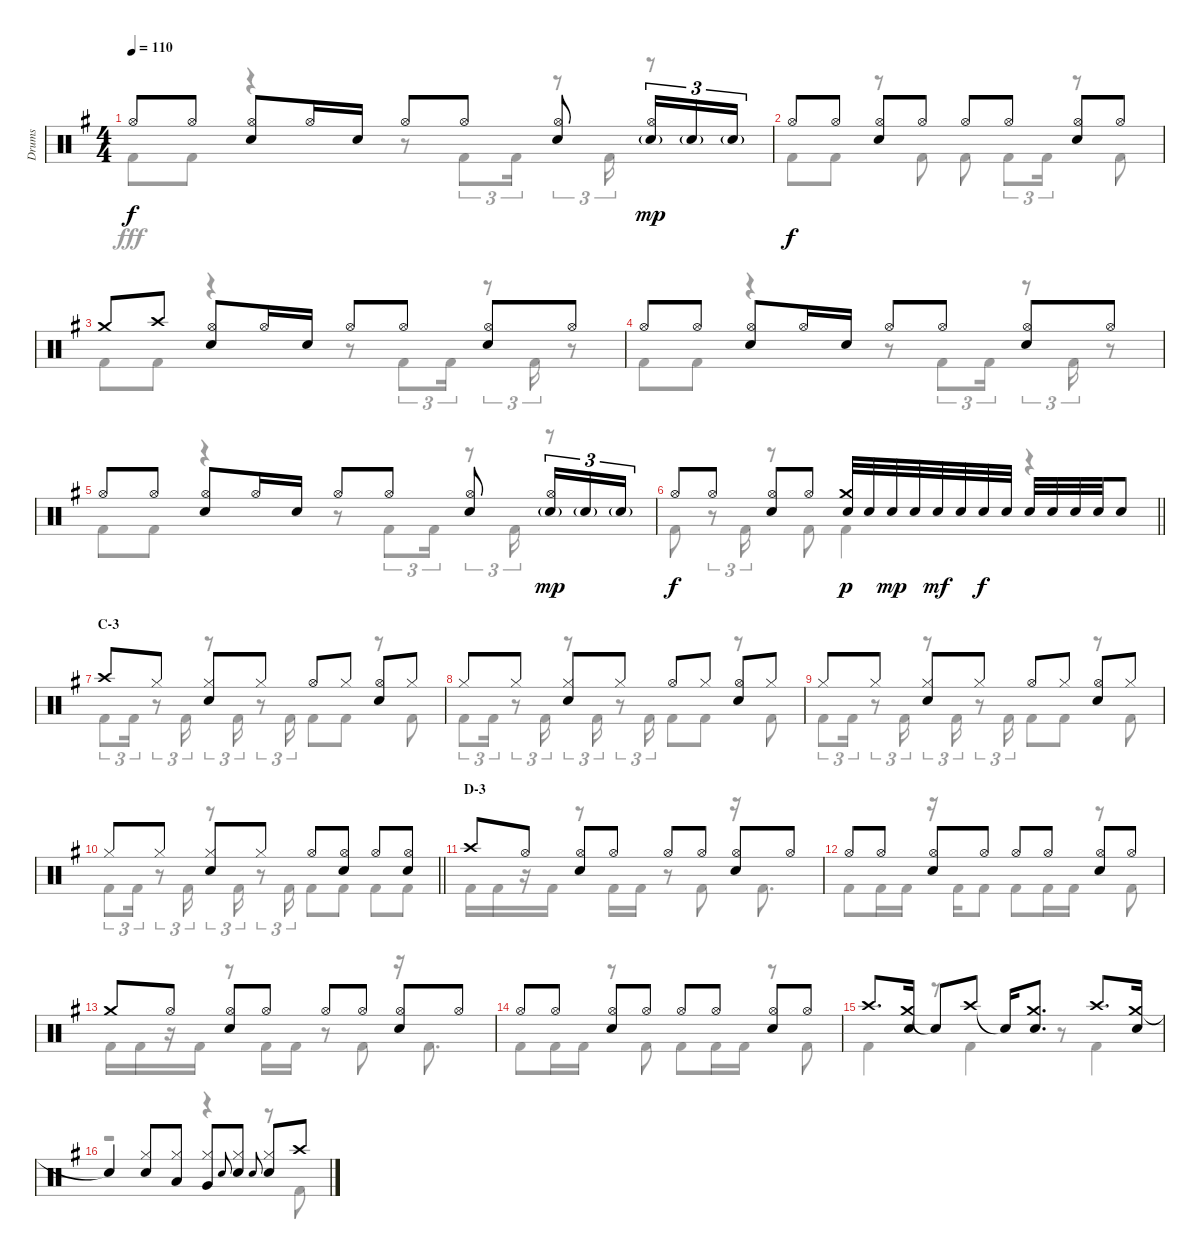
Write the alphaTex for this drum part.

\track ("Drums" "Drums") {instrument percussion}
\staff {score}
\articulation defaults
\voice
\ts (4 4)
\tempo 110
\clef neutral
\ks g "Hi-Hat (open)".8{dy f} "Hi-Hat (open)".8
("Hi-Hat (open)" "Snare (hit) 2").8 "Hi-Hat (open)".16 "Snare (hit) 2".16 "Hi-Hat (open)".8 "Hi-Hat (open)".8 ("Hi-Hat (open)" "Snare (hit) 2").8 ("Hi-Hat (open)" "Snare (hit) 2"{g}).16{tu (3 2) dy mp} "Snare (hit) 2"{g}.16{tu (3 2)} "Snare (hit) 2"{g}.16{tu (3 2)} |
"Hi-Hat (open)".8{dy f} "Hi-Hat (open)".8 ("Hi-Hat (open)" "Snare (hit) 2").8 "Hi-Hat (open)".8 "Hi-Hat (open)".8 "Hi-Hat (open)".8 ("Hi-Hat (open)" "Snare (hit) 2").8 "Hi-Hat (open)".8 |
"Crash medium (hit)".8 "Crash high (hit)".8 ("Hi-Hat (open)" "Snare (hit) 2").8 "Hi-Hat (open)".16 "Snare (hit) 2".16 "Hi-Hat (open)".8 "Hi-Hat (open)".8 ("Hi-Hat (open)" "Snare (hit) 2").8 "Hi-Hat (open)".8 |
"Hi-Hat (open)".8 "Hi-Hat (open)".8 ("Hi-Hat (open)" "Snare (hit) 2").8 "Hi-Hat (open)".16 "Snare (hit) 2".16 "Hi-Hat (open)".8 "Hi-Hat (open)".8 ("Hi-Hat (open)" "Snare (hit) 2").8 "Hi-Hat (open)".8 |
"Hi-Hat (open)".8 "Hi-Hat (open)".8 ("Hi-Hat (open)" "Snare (hit) 2").8 "Hi-Hat (open)".16 "Snare (hit) 2".16 "Hi-Hat (open)".8 "Hi-Hat (open)".8 ("Hi-Hat (open)" "Snare (hit) 2").8 ("Hi-Hat (open)" "Snare (hit) 2"{g}).16{tu (3 2) dy mp} "Snare (hit) 2"{g}.16{tu (3 2)} "Snare (hit) 2"{g}.16{tu (3 2)} |
\barLineRight lightlight "Hi-Hat (open)".8{dy f} "Hi-Hat (open)".8
("Hi-Hat (open)" "Snare (hit) 2").8 "Hi-Hat (open)".8 ("Crash medium (hit)" "Snare (hit) 2").32{dy p} "Snare (hit) 2".32 "Snare (hit) 2".32{dy mp} "Snare (hit) 2".32 "Snare (hit) 2".32{dy mf} "Snare (hit) 2".32 "Snare (hit) 2".32{dy f} "Snare (hit) 2".32 "Snare (hit) 2".32 "Snare (hit) 2".32 "Snare (hit) 2".32 "Snare (hit) 2".32 "Snare (hit) 2".8 |
\section ("" "C-3")
"Crash high (hit)".8 "Hi-Hat (closed)".8 ("Hi-Hat (closed)" "Snare (hit) 2").8 "Hi-Hat (closed)".8 "Hi-Hat (open)".8 "Hi-Hat (closed)".8 ("Hi-Hat (open)" "Snare (hit) 2").8 "Hi-Hat (closed)".8 |
"Hi-Hat (closed)".8 "Hi-Hat (closed)".8 ("Hi-Hat (closed)" "Snare (hit) 2").8 "Hi-Hat (closed)".8 "Hi-Hat (open)".8 "Hi-Hat (closed)".8 ("Hi-Hat (open)" "Snare (hit) 2").8 "Hi-Hat (closed)".8 |
"Hi-Hat (closed)".8 "Hi-Hat (closed)".8 ("Hi-Hat (closed)" "Snare (hit) 2").8 "Hi-Hat (closed)".8 "Hi-Hat (open)".8 "Hi-Hat (closed)".8 ("Hi-Hat (open)" "Snare (hit) 2").8 "Hi-Hat (closed)".8 |
\barLineRight lightlight "Hi-Hat (closed)".8 "Hi-Hat (closed)".8
("Hi-Hat (closed)" "Snare (hit) 2").8 "Hi-Hat (closed)".8 "Hi-Hat (open)".8 ("Hi-Hat (open)" "Snare (hit) 2").8 "Hi-Hat (open)".8 ("Hi-Hat (open)" "Snare (hit) 2").8 |
\section ("" "D-3")
"Crash high (hit)".8 "Hi-Hat (open)".8 ("Hi-Hat (open)" "Snare (hit) 2").8 "Hi-Hat (open)".8 "Hi-Hat (open)".8 "Hi-Hat (open)".8 ("Hi-Hat (open)" "Snare (hit) 2").8 "Hi-Hat (open)".8 |
"Hi-Hat (open)".8 "Hi-Hat (open)".8 ("Hi-Hat (open)" "Snare (hit) 2").8 "Hi-Hat (open)".8 "Hi-Hat (open)".8 "Hi-Hat (open)".8 ("Hi-Hat (open)" "Snare (hit) 2").8 "Hi-Hat (open)".8 |
"Crash medium (hit)".8 "Hi-Hat (open)".8 ("Hi-Hat (open)" "Snare (hit) 2").8 "Hi-Hat (open)".8 "Hi-Hat (open)".8 "Hi-Hat (open)".8 ("Hi-Hat (open)" "Snare (hit) 2").8 "Hi-Hat (open)".8 |
"Hi-Hat (open)".8 "Hi-Hat (open)".8 ("Hi-Hat (open)" "Snare (hit) 2").8 "Hi-Hat (open)".8 "Hi-Hat (open)".8 "Hi-Hat (open)".8 ("Hi-Hat (open)" "Snare (hit) 2").8 "Hi-Hat (open)".8 |
"Crash high (hit)".8{d} ("Crash medium (hit)" "Snare (hit) 2").16 "Snare (hit)"{t}.8 "Crash high (hit)".8 "Snare (hit)"{t}.16 ("Crash medium (hit)" "Snare (hit) 2").8{d} "Crash high (hit)".8{d} ("Crash medium (hit)" "Snare (hit) 2").16 |
"Snare (hit)"{t}.4 ("Hi-Hat (closed)" "Snare (hit) 2").8 ("Hi-Hat (closed)" "Low Tom (hit)").8 ("Hi-Hat (closed)" "Very Low Tom (hit)").8 "Snare (hit) 2".8{gr onbeat} ("Hi-Hat (closed)" "Snare (hit) 2").8 "Snare (hit) 2".8{gr onbeat} ("Hi-Hat (closed)" "Snare (hit) 2").8 "Crash high (hit)".8
\voice
\clef neutral
\ottava regular
\simile none
\ks g "Kick (hit) 2".8{dy fff} "Kick (hit) 2".8
r.4 r.8 "Kick (hit) 2".8{tu (3 2)} "Kick (hit) 2".16{tu (3 2)} r.8{tu (3 2)} "Kick (hit) 2".16{tu (3 2)} r.8 |
"Kick (hit) 2".8 "Kick (hit) 2".8 r.8 "Kick (hit) 2".8 "Kick (hit) 2".8 "Kick (hit) 2".8{tu (3 2)} "Kick (hit) 2".16{tu (3 2)} r.8 "Kick (hit) 2".8 |
"Kick (hit) 2".8 "Kick (hit) 2".8 r.4 r.8 "Kick (hit) 2".8{tu (3 2)} "Kick (hit) 2".16{tu (3 2)} r.8{tu (3 2)} "Kick (hit) 2".16{tu (3 2)} r.8 |
"Kick (hit) 2".8 "Kick (hit) 2".8 r.4 r.8 "Kick (hit) 2".8{tu (3 2)} "Kick (hit) 2".16{tu (3 2)} r.8{tu (3 2)} "Kick (hit) 2".16{tu (3 2)} r.8 |
"Kick (hit) 2".8 "Kick (hit) 2".8 r.4 r.8 "Kick (hit) 2".8{tu (3 2)} "Kick (hit) 2".16{tu (3 2)} r.8{tu (3 2)} "Kick (hit) 2".16{tu (3 2)} r.8 |
\barLineRight lightlight "Kick (hit) 2".8
r.8{tu (3 2)} "Kick (hit) 2".16{tu (3 2)} r.8 "Kick (hit) 2".8 "Kick (hit) 2".4 r.4 |
"Kick (hit) 2".8{tu (3 2)} "Kick (hit) 2".16{tu (3 2)} r.8{tu (3 2)} "Kick (hit) 2".16{tu (3 2)} r.8{tu (3 2)} "Kick (hit) 2".16{tu (3 2)} r.8{tu (3 2)} "Kick (hit) 2".16{tu (3 2)} "Kick (hit) 2".8 "Kick (hit) 2".8 r.8 "Kick (hit) 2".8 |
"Kick (hit) 2".8{tu (3 2)} "Kick (hit) 2".16{tu (3 2)} r.8{tu (3 2)} "Kick (hit) 2".16{tu (3 2)} r.8{tu (3 2)} "Kick (hit) 2".16{tu (3 2)} r.8{tu (3 2)} "Kick (hit) 2".16{tu (3 2)} "Kick (hit) 2".8 "Kick (hit) 2".8 r.8 "Kick (hit) 2".8 |
"Kick (hit) 2".8{tu (3 2)} "Kick (hit) 2".16{tu (3 2)} r.8{tu (3 2)} "Kick (hit) 2".16{tu (3 2)} r.8{tu (3 2)} "Kick (hit) 2".16{tu (3 2)} r.8{tu (3 2)} "Kick (hit) 2".16{tu (3 2)} "Kick (hit) 2".8 "Kick (hit) 2".8 r.8 "Kick (hit) 2".8 |
\barLineRight lightlight "Kick (hit) 2".8{tu (3 2)} "Kick (hit) 2".16{tu (3 2)}
r.8{tu (3 2)} "Kick (hit) 2".16{tu (3 2)} r.8{tu (3 2)} "Kick (hit) 2".16{tu (3 2)} r.8{tu (3 2)} "Kick (hit) 2".16{tu (3 2)} "Kick (hit) 2".8 "Kick (hit) 2".8 "Kick (hit) 2".8 "Kick (hit) 2".8 |
"Kick (hit) 2".16 "Kick (hit) 2".16 r.16 "Kick (hit) 2".16 r.8 "Kick (hit) 2".16 "Kick (hit) 2".16 r.8 "Kick (hit) 2".8 r.16 "Kick (hit) 2".8{d} |
"Kick (hit) 2".8 "Kick (hit) 2".16 "Kick (hit) 2".16 r.16 "Kick (hit) 2".16 "Kick (hit) 2".8 "Kick (hit) 2".8 "Kick (hit) 2".16 "Kick (hit) 2".16 r.8 "Kick (hit) 2".8 |
"Kick (hit) 2".16 "Kick (hit) 2".16 r.16 "Kick (hit) 2".16 r.8 "Kick (hit) 2".16 "Kick (hit) 2".16 r.8 "Kick (hit) 2".8 r.16 "Kick (hit) 2".8{d} |
"Kick (hit) 2".8 "Kick (hit) 2".16 "Kick (hit) 2".16 r.8 "Kick (hit) 2".8 "Kick (hit) 2".8 "Kick (hit) 2".16 "Kick (hit) 2".16 r.8 "Kick (hit) 2".8 |
"Kick (hit) 2".4 r.8 "Kick (hit) 2".4 r.8 "Kick (hit) 2".4 |
r.2 r.4 r.8 "Kick (hit) 2".8
